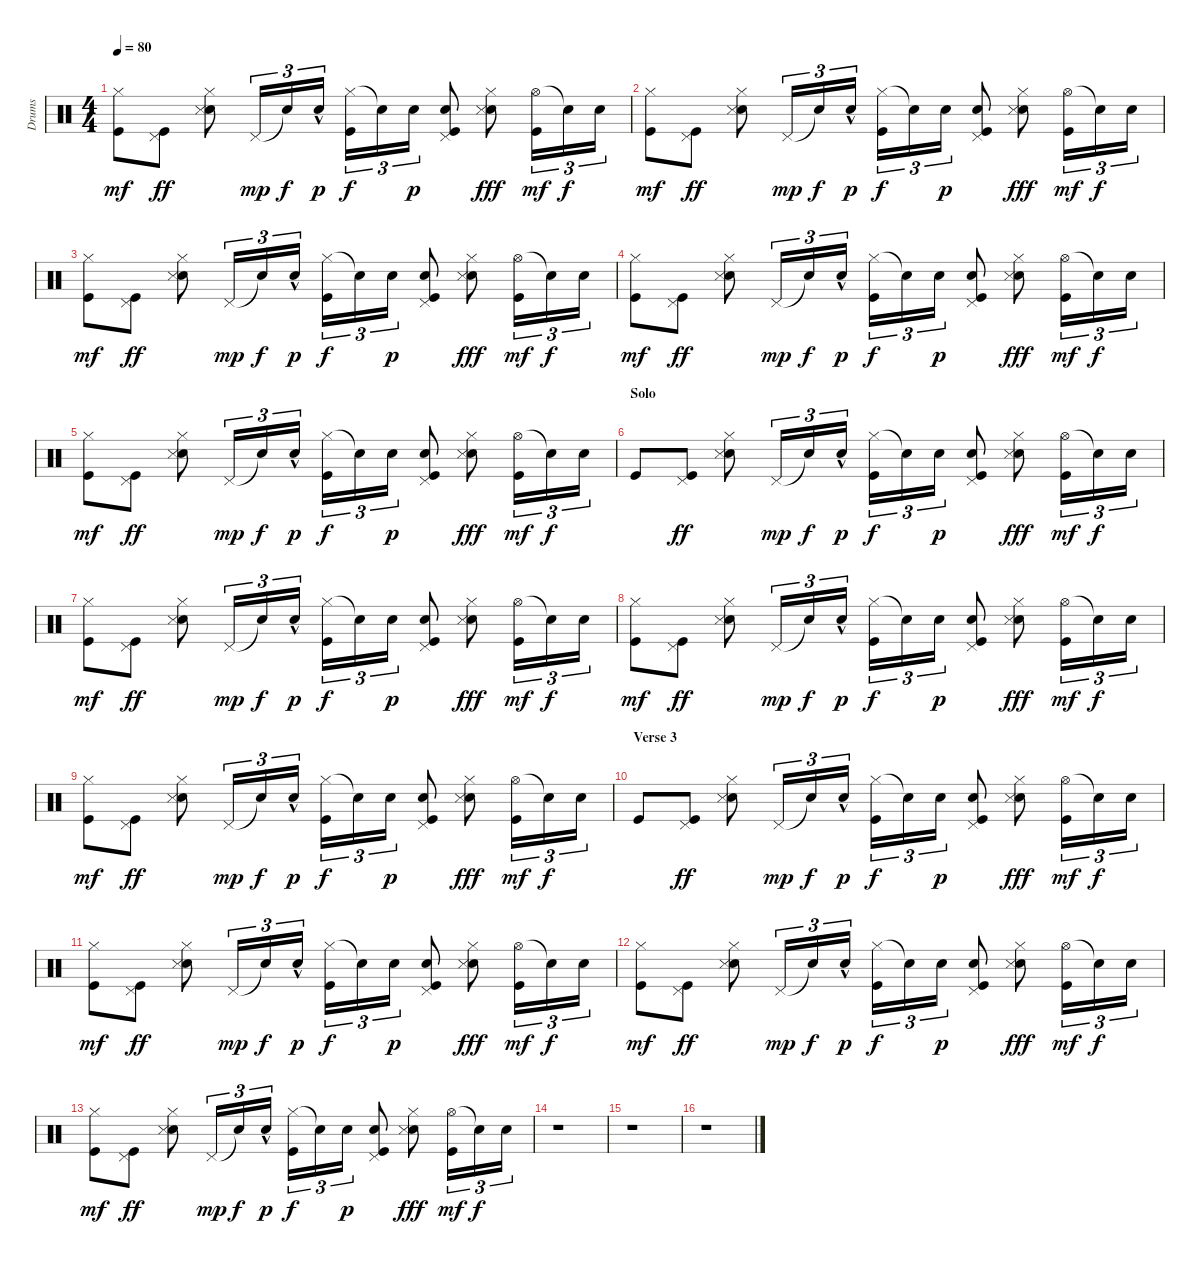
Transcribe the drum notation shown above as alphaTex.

\track ("Drums" "Drums") {instrument percussion}
\staff {score}
\articulation defaults
\ts (4 4)
\tempo 80
\clef neutral
\ks c
("Hi-Hat (closed)" "Kick (hit)").8{dy mf} ("Pedal Hi-Hat (hit)" "Kick (hit)").8{dy ff} ("Electric Snare (hit)" "Hi-Hat (closed)" "Snare (side stick) 3").8 "Pedal Hi-Hat (hit)".16{tu (3 2) dy mp} "Snare (hit)"{t}.16{tu (3 2) dy f} "Electric Snare (hit)"{hac}.16{tu (3 2) dy p} ("Hi-Hat (closed)" "Kick (hit)").16{tu (3 2) dy f} "Snare (hit)"{t}.16{tu (3 2)} "Electric Snare (hit)".16{tu (3 2) dy p} ("Electric Snare (hit)" "Pedal Hi-Hat (hit)" "Kick (hit)").8 ("Electric Snare (hit)" "Hi-Hat (closed)" "Snare (side stick) 3").8{dy fff} ("Hi-Hat (open)" "Kick (hit)").16{tu (3 2) dy mf} "Snare (hit)"{t}.16{tu (3 2) dy f} "Electric Snare (hit)".16{tu (3 2)} |
("Hi-Hat (closed)" "Kick (hit)").8{dy mf} ("Pedal Hi-Hat (hit)" "Kick (hit)").8{dy ff} ("Electric Snare (hit)" "Hi-Hat (closed)" "Snare (side stick) 3").8 "Pedal Hi-Hat (hit)".16{tu (3 2) dy mp} "Snare (hit)"{t}.16{tu (3 2) dy f} "Electric Snare (hit)"{hac}.16{tu (3 2) dy p} ("Hi-Hat (closed)" "Kick (hit)").16{tu (3 2) dy f} "Snare (hit)"{t}.16{tu (3 2)} "Electric Snare (hit)".16{tu (3 2) dy p} ("Electric Snare (hit)" "Pedal Hi-Hat (hit)" "Kick (hit)").8 ("Electric Snare (hit)" "Hi-Hat (closed)" "Snare (side stick) 3").8{dy fff} ("Hi-Hat (open)" "Kick (hit)").16{tu (3 2) dy mf} "Snare (hit)"{t}.16{tu (3 2) dy f} "Electric Snare (hit)".16{tu (3 2)} |
("Hi-Hat (closed)" "Kick (hit)").8{dy mf} ("Pedal Hi-Hat (hit)" "Kick (hit)").8{dy ff} ("Electric Snare (hit)" "Hi-Hat (closed)" "Snare (side stick) 3").8 "Pedal Hi-Hat (hit)".16{tu (3 2) dy mp} "Snare (hit)"{t}.16{tu (3 2) dy f} "Electric Snare (hit)"{hac}.16{tu (3 2) dy p} ("Hi-Hat (closed)" "Kick (hit)").16{tu (3 2) dy f} "Snare (hit)"{t}.16{tu (3 2)} "Electric Snare (hit)".16{tu (3 2) dy p} ("Electric Snare (hit)" "Pedal Hi-Hat (hit)" "Kick (hit)").8 ("Electric Snare (hit)" "Hi-Hat (closed)" "Snare (side stick) 3").8{dy fff} ("Hi-Hat (open)" "Kick (hit)").16{tu (3 2) dy mf} "Snare (hit)"{t}.16{tu (3 2) dy f} "Electric Snare (hit)".16{tu (3 2)} |
("Hi-Hat (closed)" "Kick (hit)").8{dy mf} ("Pedal Hi-Hat (hit)" "Kick (hit)").8{dy ff} ("Electric Snare (hit)" "Hi-Hat (closed)" "Snare (side stick) 3").8 "Pedal Hi-Hat (hit)".16{tu (3 2) dy mp} "Snare (hit)"{t}.16{tu (3 2) dy f} "Electric Snare (hit)"{hac}.16{tu (3 2) dy p} ("Hi-Hat (closed)" "Kick (hit)").16{tu (3 2) dy f} "Snare (hit)"{t}.16{tu (3 2)} "Electric Snare (hit)".16{tu (3 2) dy p} ("Electric Snare (hit)" "Pedal Hi-Hat (hit)" "Kick (hit)").8 ("Electric Snare (hit)" "Hi-Hat (closed)" "Snare (side stick) 3").8{dy fff} ("Hi-Hat (open)" "Kick (hit)").16{tu (3 2) dy mf} "Snare (hit)"{t}.16{tu (3 2) dy f} "Electric Snare (hit)".16{tu (3 2)} |
("Hi-Hat (closed)" "Kick (hit)").8{dy mf} ("Pedal Hi-Hat (hit)" "Kick (hit)").8{dy ff} ("Electric Snare (hit)" "Hi-Hat (closed)" "Snare (side stick) 3").8 "Pedal Hi-Hat (hit)".16{tu (3 2) dy mp} "Snare (hit)"{t}.16{tu (3 2) dy f} "Electric Snare (hit)"{hac}.16{tu (3 2) dy p} ("Hi-Hat (closed)" "Kick (hit)").16{tu (3 2) dy f} "Snare (hit)"{t}.16{tu (3 2)} "Electric Snare (hit)".16{tu (3 2) dy p} ("Electric Snare (hit)" "Pedal Hi-Hat (hit)" "Kick (hit)").8 ("Electric Snare (hit)" "Hi-Hat (closed)" "Snare (side stick) 3").8{dy fff} ("Hi-Hat (open)" "Kick (hit)").16{tu (3 2) dy mf} "Snare (hit)"{t}.16{tu (3 2) dy f} "Electric Snare (hit)".16{tu (3 2)} |
\section ("" "Solo")
"Kick (hit)".8 ("Pedal Hi-Hat (hit)" "Kick (hit)").8{dy ff} ("Electric Snare (hit)" "Hi-Hat (closed)" "Snare (side stick) 3").8 "Pedal Hi-Hat (hit)".16{tu (3 2) dy mp} "Snare (hit)"{t}.16{tu (3 2) dy f} "Electric Snare (hit)"{hac}.16{tu (3 2) dy p} ("Hi-Hat (closed)" "Kick (hit)").16{tu (3 2) dy f} "Snare (hit)"{t}.16{tu (3 2)} "Electric Snare (hit)".16{tu (3 2) dy p} ("Electric Snare (hit)" "Pedal Hi-Hat (hit)" "Kick (hit)").8 ("Electric Snare (hit)" "Hi-Hat (closed)" "Snare (side stick) 3").8{dy fff} ("Hi-Hat (open)" "Kick (hit)").16{tu (3 2) dy mf} "Snare (hit)"{t}.16{tu (3 2) dy f} "Electric Snare (hit)".16{tu (3 2)} |
("Hi-Hat (closed)" "Kick (hit)").8{dy mf} ("Pedal Hi-Hat (hit)" "Kick (hit)").8{dy ff} ("Electric Snare (hit)" "Hi-Hat (closed)" "Snare (side stick) 3").8 "Pedal Hi-Hat (hit)".16{tu (3 2) dy mp} "Snare (hit)"{t}.16{tu (3 2) dy f} "Electric Snare (hit)"{hac}.16{tu (3 2) dy p} ("Hi-Hat (closed)" "Kick (hit)").16{tu (3 2) dy f} "Snare (hit)"{t}.16{tu (3 2)} "Electric Snare (hit)".16{tu (3 2) dy p} ("Electric Snare (hit)" "Pedal Hi-Hat (hit)" "Kick (hit)").8 ("Electric Snare (hit)" "Hi-Hat (closed)" "Snare (side stick) 3").8{dy fff} ("Hi-Hat (open)" "Kick (hit)").16{tu (3 2) dy mf} "Snare (hit)"{t}.16{tu (3 2) dy f} "Electric Snare (hit)".16{tu (3 2)} |
("Hi-Hat (closed)" "Kick (hit)").8{dy mf} ("Pedal Hi-Hat (hit)" "Kick (hit)").8{dy ff} ("Electric Snare (hit)" "Hi-Hat (closed)" "Snare (side stick) 3").8 "Pedal Hi-Hat (hit)".16{tu (3 2) dy mp} "Snare (hit)"{t}.16{tu (3 2) dy f} "Electric Snare (hit)"{hac}.16{tu (3 2) dy p} ("Hi-Hat (closed)" "Kick (hit)").16{tu (3 2) dy f} "Snare (hit)"{t}.16{tu (3 2)} "Electric Snare (hit)".16{tu (3 2) dy p} ("Electric Snare (hit)" "Pedal Hi-Hat (hit)" "Kick (hit)").8 ("Electric Snare (hit)" "Hi-Hat (closed)" "Snare (side stick) 3").8{dy fff} ("Hi-Hat (open)" "Kick (hit)").16{tu (3 2) dy mf} "Snare (hit)"{t}.16{tu (3 2) dy f} "Electric Snare (hit)".16{tu (3 2)} |
("Hi-Hat (closed)" "Kick (hit)").8{dy mf} ("Pedal Hi-Hat (hit)" "Kick (hit)").8{dy ff} ("Electric Snare (hit)" "Hi-Hat (closed)" "Snare (side stick) 3").8 "Pedal Hi-Hat (hit)".16{tu (3 2) dy mp} "Snare (hit)"{t}.16{tu (3 2) dy f} "Electric Snare (hit)"{hac}.16{tu (3 2) dy p} ("Hi-Hat (closed)" "Kick (hit)").16{tu (3 2) dy f} "Snare (hit)"{t}.16{tu (3 2)} "Electric Snare (hit)".16{tu (3 2) dy p} ("Electric Snare (hit)" "Pedal Hi-Hat (hit)" "Kick (hit)").8 ("Electric Snare (hit)" "Hi-Hat (closed)" "Snare (side stick) 3").8{dy fff} ("Hi-Hat (open)" "Kick (hit)").16{tu (3 2) dy mf} "Snare (hit)"{t}.16{tu (3 2) dy f} "Electric Snare (hit)".16{tu (3 2)} |
\section ("" "Verse 3")
"Kick (hit)".8 ("Pedal Hi-Hat (hit)" "Kick (hit)").8{dy ff} ("Electric Snare (hit)" "Hi-Hat (closed)" "Snare (side stick) 3").8 "Pedal Hi-Hat (hit)".16{tu (3 2) dy mp} "Snare (hit)"{t}.16{tu (3 2) dy f} "Electric Snare (hit)"{hac}.16{tu (3 2) dy p} ("Hi-Hat (closed)" "Kick (hit)").16{tu (3 2) dy f} "Snare (hit)"{t}.16{tu (3 2)} "Electric Snare (hit)".16{tu (3 2) dy p} ("Electric Snare (hit)" "Pedal Hi-Hat (hit)" "Kick (hit)").8 ("Electric Snare (hit)" "Hi-Hat (closed)" "Snare (side stick) 3").8{dy fff} ("Hi-Hat (open)" "Kick (hit)").16{tu (3 2) dy mf} "Snare (hit)"{t}.16{tu (3 2) dy f} "Electric Snare (hit)".16{tu (3 2)} |
("Hi-Hat (closed)" "Kick (hit)").8{dy mf} ("Pedal Hi-Hat (hit)" "Kick (hit)").8{dy ff} ("Electric Snare (hit)" "Hi-Hat (closed)" "Snare (side stick) 3").8 "Pedal Hi-Hat (hit)".16{tu (3 2) dy mp} "Snare (hit)"{t}.16{tu (3 2) dy f} "Electric Snare (hit)"{hac}.16{tu (3 2) dy p} ("Hi-Hat (closed)" "Kick (hit)").16{tu (3 2) dy f} "Snare (hit)"{t}.16{tu (3 2)} "Electric Snare (hit)".16{tu (3 2) dy p} ("Electric Snare (hit)" "Pedal Hi-Hat (hit)" "Kick (hit)").8 ("Electric Snare (hit)" "Hi-Hat (closed)" "Snare (side stick) 3").8{dy fff} ("Hi-Hat (open)" "Kick (hit)").16{tu (3 2) dy mf} "Snare (hit)"{t}.16{tu (3 2) dy f} "Electric Snare (hit)".16{tu (3 2)} |
("Hi-Hat (closed)" "Kick (hit)").8{dy mf} ("Pedal Hi-Hat (hit)" "Kick (hit)").8{dy ff} ("Electric Snare (hit)" "Hi-Hat (closed)" "Snare (side stick) 3").8 "Pedal Hi-Hat (hit)".16{tu (3 2) dy mp} "Snare (hit)"{t}.16{tu (3 2) dy f} "Electric Snare (hit)"{hac}.16{tu (3 2) dy p} ("Hi-Hat (closed)" "Kick (hit)").16{tu (3 2) dy f} "Snare (hit)"{t}.16{tu (3 2)} "Electric Snare (hit)".16{tu (3 2) dy p} ("Electric Snare (hit)" "Pedal Hi-Hat (hit)" "Kick (hit)").8 ("Electric Snare (hit)" "Hi-Hat (closed)" "Snare (side stick) 3").8{dy fff} ("Hi-Hat (open)" "Kick (hit)").16{tu (3 2) dy mf} "Snare (hit)"{t}.16{tu (3 2) dy f} "Electric Snare (hit)".16{tu (3 2)} |
("Hi-Hat (closed)" "Kick (hit)").8{dy mf} ("Pedal Hi-Hat (hit)" "Kick (hit)").8{dy ff} ("Electric Snare (hit)" "Hi-Hat (closed)" "Snare (side stick) 3").8 "Pedal Hi-Hat (hit)".16{tu (3 2) dy mp} "Snare (hit)"{t}.16{tu (3 2) dy f} "Electric Snare (hit)"{hac}.16{tu (3 2) dy p} ("Hi-Hat (closed)" "Kick (hit)").16{tu (3 2) dy f} "Snare (hit)"{t}.16{tu (3 2)} "Electric Snare (hit)".16{tu (3 2) dy p} ("Electric Snare (hit)" "Pedal Hi-Hat (hit)" "Kick (hit)").8 ("Electric Snare (hit)" "Hi-Hat (closed)" "Snare (side stick) 3").8{dy fff} ("Hi-Hat (open)" "Kick (hit)").16{tu (3 2) dy mf} "Snare (hit)"{t}.16{tu (3 2) dy f} "Electric Snare (hit)".16{tu (3 2)} |
r.1 |
r.1 |
r.1
